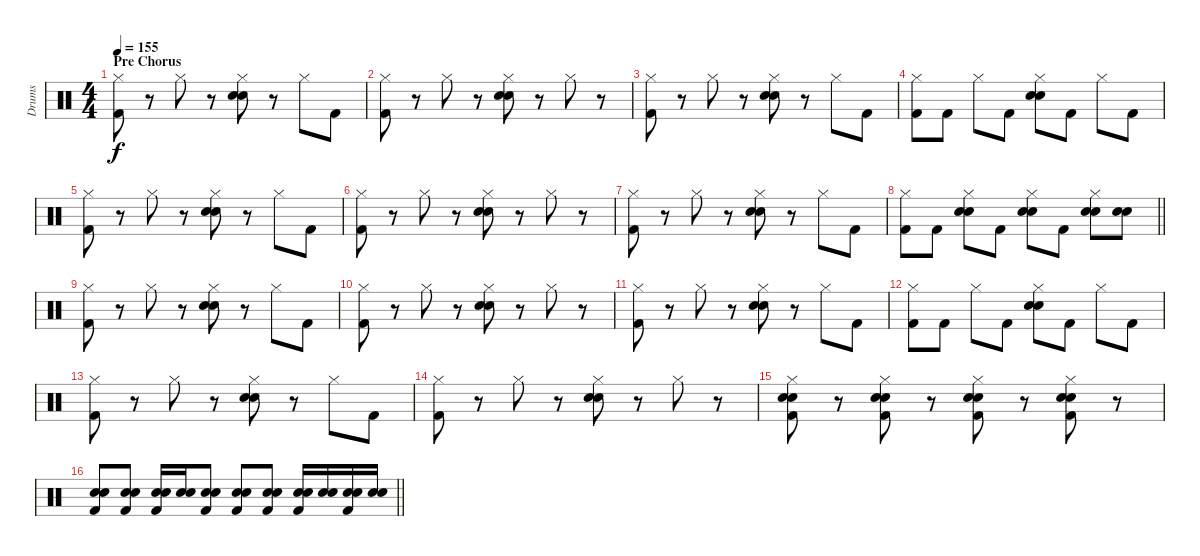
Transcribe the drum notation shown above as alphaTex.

\track ("Drums" "Drums") {instrument percussion}
\staff {score}
\articulation defaults
\ts (4 4)
\section ("" "Pre Chorus")
\tempo 155
\clef neutral
\ks c
("Hi-Hat (closed)" "Kick (hit) 2").8{dy f} r.8 "Hi-Hat (closed)".8 r.8 ("Hi-Hat (closed)" "Electric Snare (hit)" "Hand Clap (hit)").8 r.8 "Hi-Hat (closed)".8 "Kick (hit) 2".8 |
("Hi-Hat (closed)" "Kick (hit) 2").8 r.8 "Hi-Hat (closed)".8 r.8 ("Hi-Hat (closed)" "Electric Snare (hit)" "Hand Clap (hit)").8 r.8 "Hi-Hat (closed)".8 r.8 |
("Hi-Hat (closed)" "Kick (hit) 2").8 r.8 "Hi-Hat (closed)".8 r.8 ("Hi-Hat (closed)" "Electric Snare (hit)" "Hand Clap (hit)").8 r.8 "Hi-Hat (closed)".8 "Kick (hit) 2".8 |
("Hi-Hat (closed)" "Kick (hit) 2").8 "Kick (hit) 2".8 "Hi-Hat (closed)".8 "Kick (hit) 2".8 ("Hi-Hat (closed)" "Electric Snare (hit)" "Hand Clap (hit)").8 "Kick (hit) 2".8 "Hi-Hat (closed)".8 "Kick (hit) 2".8 |
("Hi-Hat (closed)" "Kick (hit) 2").8 r.8 "Hi-Hat (closed)".8 r.8 ("Hi-Hat (closed)" "Electric Snare (hit)" "Hand Clap (hit)").8 r.8 "Hi-Hat (closed)".8 "Kick (hit) 2".8 |
("Hi-Hat (closed)" "Kick (hit) 2").8 r.8 "Hi-Hat (closed)".8 r.8 ("Hi-Hat (closed)" "Electric Snare (hit)" "Hand Clap (hit)").8 r.8 "Hi-Hat (closed)".8 r.8 |
("Hi-Hat (closed)" "Kick (hit) 2").8 r.8 "Hi-Hat (closed)".8 r.8 ("Hi-Hat (closed)" "Electric Snare (hit)" "Hand Clap (hit)").8 r.8 "Hi-Hat (closed)".8 "Kick (hit) 2".8 |
\barLineRight lightlight
("Hi-Hat (closed)" "Kick (hit) 2").8 "Kick (hit) 2".8 ("Hi-Hat (closed)" "Electric Snare (hit)" "Hand Clap (hit)").8 "Kick (hit) 2".8 ("Hi-Hat (closed)" "Electric Snare (hit)" "Hand Clap (hit)").8 "Kick (hit) 2".8 ("Hi-Hat (closed)" "Electric Snare (hit)" "Hand Clap (hit)").8 ("Electric Snare (hit)" "Hand Clap (hit)").8 |
\section ("" "")
("Hi-Hat (closed)" "Kick (hit) 2").8 r.8 "Hi-Hat (closed)".8 r.8 ("Hi-Hat (closed)" "Electric Snare (hit)" "Hand Clap (hit)").8 r.8 "Hi-Hat (closed)".8 "Kick (hit) 2".8 |
("Hi-Hat (closed)" "Kick (hit) 2").8 r.8 "Hi-Hat (closed)".8 r.8 ("Hi-Hat (closed)" "Electric Snare (hit)" "Hand Clap (hit)").8 r.8 "Hi-Hat (closed)".8 r.8 |
("Hi-Hat (closed)" "Kick (hit) 2").8 r.8 "Hi-Hat (closed)".8 r.8 ("Hi-Hat (closed)" "Electric Snare (hit)" "Hand Clap (hit)").8 r.8 "Hi-Hat (closed)".8 "Kick (hit) 2".8 |
("Hi-Hat (closed)" "Kick (hit) 2").8 "Kick (hit) 2".8 "Hi-Hat (closed)".8 "Kick (hit) 2".8 ("Hi-Hat (closed)" "Electric Snare (hit)" "Hand Clap (hit)").8 "Kick (hit) 2".8 "Hi-Hat (closed)".8 "Kick (hit) 2".8 |
("Hi-Hat (closed)" "Kick (hit) 2").8 r.8 "Hi-Hat (closed)".8 r.8 ("Hi-Hat (closed)" "Electric Snare (hit)" "Hand Clap (hit)").8 r.8 "Hi-Hat (closed)".8 "Kick (hit) 2".8 |
("Hi-Hat (closed)" "Kick (hit) 2").8 r.8 "Hi-Hat (closed)".8 r.8 ("Hi-Hat (closed)" "Electric Snare (hit)" "Hand Clap (hit)").8 r.8 "Hi-Hat (closed)".8 r.8 |
("Hi-Hat (closed)" "Electric Snare (hit)" "Hand Clap (hit)" "Kick (hit) 2").8 r.8 ("Hi-Hat (closed)" "Electric Snare (hit)" "Hand Clap (hit)" "Kick (hit) 2").8 r.8 ("Hi-Hat (closed)" "Electric Snare (hit)" "Hand Clap (hit)" "Kick (hit) 2").8 r.8 ("Hi-Hat (closed)" "Electric Snare (hit)" "Hand Clap (hit)" "Kick (hit) 2").8 r.8 |
\barLineRight lightlight
("Electric Snare (hit)" "Hand Clap (hit)" "Kick (hit) 2").8 ("Electric Snare (hit)" "Hand Clap (hit)" "Kick (hit) 2").8 ("Electric Snare (hit)" "Hand Clap (hit)" "Kick (hit) 2").16 ("Electric Snare (hit)" "Hand Clap (hit)").16 ("Electric Snare (hit)" "Hand Clap (hit)" "Kick (hit) 2").8 ("Electric Snare (hit)" "Hand Clap (hit)" "Kick (hit) 2").8 ("Electric Snare (hit)" "Hand Clap (hit)" "Kick (hit) 2").8 ("Electric Snare (hit)" "Hand Clap (hit)" "Kick (hit) 2").16 ("Electric Snare (hit)" "Hand Clap (hit)").16 ("Electric Snare (hit)" "Hand Clap (hit)" "Kick (hit) 2").16 ("Electric Snare (hit)" "Hand Clap (hit)").16
